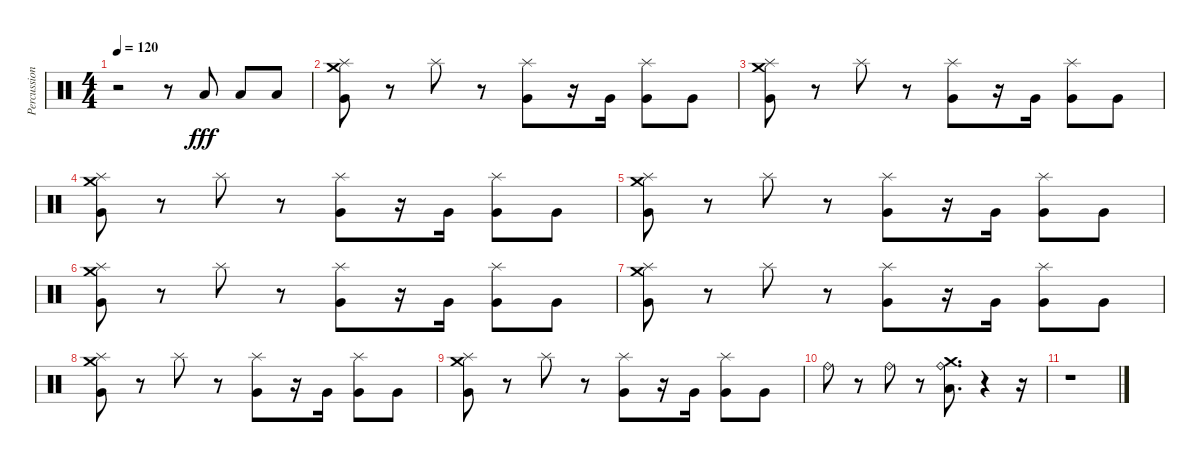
\track ("Percussions" "Percussion") {instrument percussion}
\staff {score}
\articulation defaults
\ts (4 4)
\tempo 120
\clef neutral
\ks c
r.2{dy fff} r.8 "Low Floor Tom (hit)".8 "Low Floor Tom (hit)".8 "Low Floor Tom (hit)".8 |
("Very Low Tom (hit)" "Crash medium (hit)" "Splash (hit)").8 r.8 "Splash (hit)".8 r.8 ("Very Low Tom (hit)" "Splash (hit)").8 r.16 "Very Low Tom (hit)".16 ("Very Low Tom (hit)" "Splash (hit)").8 "Very Low Tom (hit)".8 |
("Very Low Tom (hit)" "Crash medium (hit)" "Splash (hit)").8 r.8 "Splash (hit)".8 r.8 ("Very Low Tom (hit)" "Splash (hit)").8 r.16 "Very Low Tom (hit)".16 ("Very Low Tom (hit)" "Splash (hit)").8 "Very Low Tom (hit)".8 |
("Very Low Tom (hit)" "Crash medium (hit)" "Splash (hit)").8 r.8 "Splash (hit)".8 r.8 ("Very Low Tom (hit)" "Splash (hit)").8 r.16 "Very Low Tom (hit)".16 ("Very Low Tom (hit)" "Splash (hit)").8 "Very Low Tom (hit)".8 |
("Very Low Tom (hit)" "Crash medium (hit)" "Splash (hit)").8 r.8 "Splash (hit)".8 r.8 ("Very Low Tom (hit)" "Splash (hit)").8 r.16 "Very Low Tom (hit)".16 ("Very Low Tom (hit)" "Splash (hit)").8 "Very Low Tom (hit)".8 |
("Very Low Tom (hit)" "Crash medium (hit)" "Splash (hit)").8 r.8 "Splash (hit)".8 r.8 ("Very Low Tom (hit)" "Splash (hit)").8 r.16 "Very Low Tom (hit)".16 ("Very Low Tom (hit)" "Splash (hit)").8 "Very Low Tom (hit)".8 |
("Very Low Tom (hit)" "Crash medium (hit)" "Splash (hit)").8 r.8 "Splash (hit)".8 r.8 ("Very Low Tom (hit)" "Splash (hit)").8 r.16 "Very Low Tom (hit)".16 ("Very Low Tom (hit)" "Splash (hit)").8 "Very Low Tom (hit)".8 |
("Very Low Tom (hit)" "Crash medium (hit)" "Splash (hit)").8 r.8 "Splash (hit)".8 r.8 ("Very Low Tom (hit)" "Splash (hit)").8 r.16 "Very Low Tom (hit)".16 ("Very Low Tom (hit)" "Splash (hit)").8 "Very Low Tom (hit)".8 |
("Very Low Tom (hit)" "Crash medium (hit)" "Splash (hit)").8 r.8 "Splash (hit)".8 r.8 ("Very Low Tom (hit)" "Splash (hit)").8 r.16 "Very Low Tom (hit)".16 ("Very Low Tom (hit)" "Splash (hit)").8 "Very Low Tom (hit)".8 |
"Ride (bell)".8 r.8 "Ride (bell)".8 r.8 ("Crash medium (hit)" "Ride (bell)" "Low Tom (hit)").8{d} r.4 r.16 |
r.1
